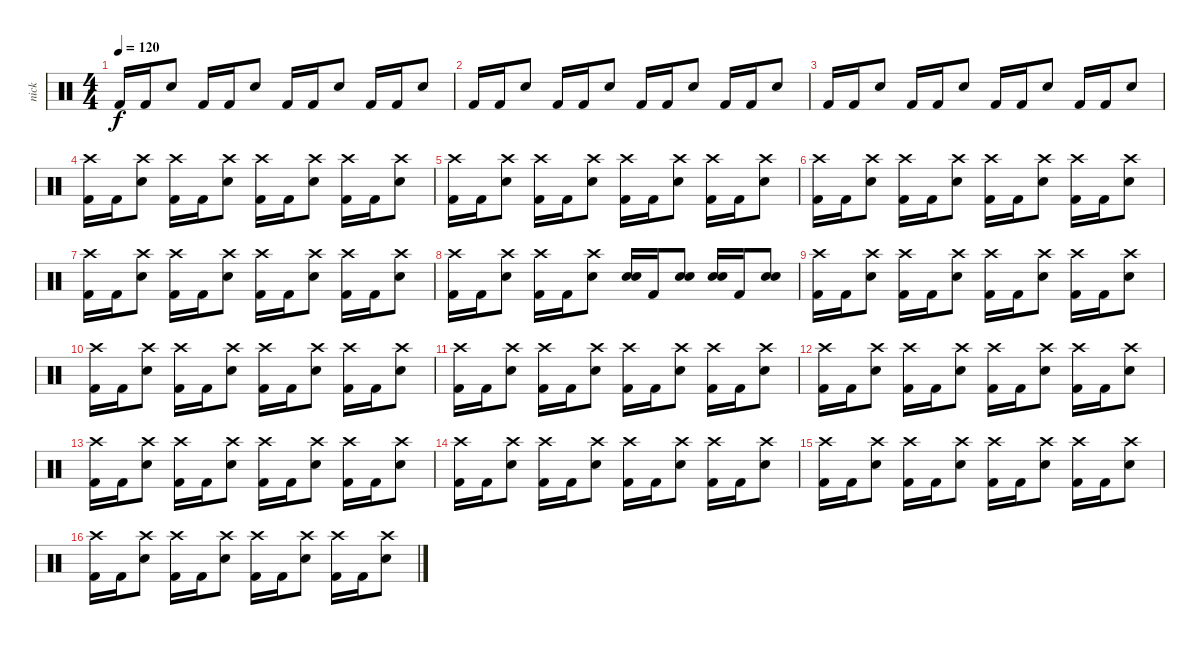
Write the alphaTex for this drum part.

\track ("nick" "nick") {instrument percussion}
\staff {score}
\articulation defaults
\ts (4 4)
\tempo 120
\clef neutral
\ks c "Kick (hit) 2".16{dy f} "Kick (hit) 2".16 "Snare (hit) 2".8 "Kick (hit) 2".16 "Kick (hit) 2".16 "Snare (hit) 2".8 "Kick (hit) 2".16 "Kick (hit) 2".16 "Snare (hit) 2".8 "Kick (hit) 2".16 "Kick (hit) 2".16 "Snare (hit) 2".8
|
"Kick (hit) 2".16 "Kick (hit) 2".16 "Snare (hit) 2".8 "Kick (hit) 2".16 "Kick (hit) 2".16 "Snare (hit) 2".8 "Kick (hit) 2".16 "Kick (hit) 2".16 "Snare (hit) 2".8 "Kick (hit) 2".16 "Kick (hit) 2".16 "Snare (hit) 2".8 |
"Kick (hit) 2".16 "Kick (hit) 2".16 "Snare (hit) 2".8 "Kick (hit) 2".16 "Kick (hit) 2".16 "Snare (hit) 2".8 "Kick (hit) 2".16 "Kick (hit) 2".16 "Snare (hit) 2".8 "Kick (hit) 2".16 "Kick (hit) 2".16 "Snare (hit) 2".8 |
("Kick (hit) 2" "Crash high (hit)").16 "Kick (hit) 2".16 ("Snare (hit) 2" "Crash high (hit)").8 ("Kick (hit) 2" "Crash high (hit)").16 "Kick (hit) 2".16 ("Snare (hit) 2" "Crash high (hit)").8 ("Kick (hit) 2" "Crash high (hit)").16 "Kick (hit) 2".16 ("Snare (hit) 2" "Crash high (hit)").8 ("Kick (hit) 2" "Crash high (hit)").16 "Kick (hit) 2".16 ("Snare (hit) 2" "Crash high (hit)").8 |
("Kick (hit) 2" "Crash high (hit)").16 "Kick (hit) 2".16 ("Snare (hit) 2" "Crash high (hit)").8 ("Kick (hit) 2" "Crash high (hit)").16 "Kick (hit) 2".16 ("Snare (hit) 2" "Crash high (hit)").8 ("Kick (hit) 2" "Crash high (hit)").16 "Kick (hit) 2".16 ("Snare (hit) 2" "Crash high (hit)").8 ("Kick (hit) 2" "Crash high (hit)").16 "Kick (hit) 2".16 ("Snare (hit) 2" "Crash high (hit)").8 |
("Kick (hit) 2" "Crash high (hit)").16 "Kick (hit) 2".16 ("Snare (hit) 2" "Crash high (hit)").8 ("Kick (hit) 2" "Crash high (hit)").16 "Kick (hit) 2".16 ("Snare (hit) 2" "Crash high (hit)").8 ("Kick (hit) 2" "Crash high (hit)").16 "Kick (hit) 2".16 ("Snare (hit) 2" "Crash high (hit)").8 ("Kick (hit) 2" "Crash high (hit)").16 "Kick (hit) 2".16 ("Snare (hit) 2" "Crash high (hit)").8 |
("Kick (hit) 2" "Crash high (hit)").16 "Kick (hit) 2".16 ("Snare (hit) 2" "Crash high (hit)").8 ("Kick (hit) 2" "Crash high (hit)").16 "Kick (hit) 2".16 ("Snare (hit) 2" "Crash high (hit)").8 ("Kick (hit) 2" "Crash high (hit)").16 "Kick (hit) 2".16 ("Snare (hit) 2" "Crash high (hit)").8 ("Kick (hit) 2" "Crash high (hit)").16 "Kick (hit) 2".16 ("Snare (hit) 2" "Crash high (hit)").8 |
("Kick (hit) 2" "Crash high (hit)").16 "Kick (hit) 2".16 ("Snare (hit) 2" "Crash high (hit)").8 ("Kick (hit) 2" "Crash high (hit)").16 "Kick (hit) 2".16 ("Snare (hit) 2" "Crash high (hit)").8 ("Snare (hit) 2" "Snare (hit)").16 "Kick (hit) 2".16 ("Snare (hit) 2" "Snare (hit)").8 ("Snare (hit) 2" "Snare (hit)").16 "Kick (hit) 2".16 ("Snare (hit) 2" "Snare (hit)").8 |
("Kick (hit) 2" "Crash high (hit)").16 "Kick (hit) 2".16 ("Snare (hit) 2" "Crash high (hit)").8 ("Kick (hit) 2" "Crash high (hit)").16 "Kick (hit) 2".16 ("Snare (hit) 2" "Crash high (hit)").8 ("Kick (hit) 2" "Crash high (hit)").16 "Kick (hit) 2".16 ("Snare (hit) 2" "Crash high (hit)").8 ("Kick (hit) 2" "Crash high (hit)").16 "Kick (hit) 2".16 ("Snare (hit) 2" "Crash high (hit)").8 |
("Kick (hit) 2" "Crash high (hit)").16 "Kick (hit) 2".16 ("Snare (hit) 2" "Crash high (hit)").8 ("Kick (hit) 2" "Crash high (hit)").16 "Kick (hit) 2".16 ("Snare (hit) 2" "Crash high (hit)").8 ("Kick (hit) 2" "Crash high (hit)").16 "Kick (hit) 2".16 ("Snare (hit) 2" "Crash high (hit)").8 ("Kick (hit) 2" "Crash high (hit)").16 "Kick (hit) 2".16 ("Snare (hit) 2" "Crash high (hit)").8 |
("Kick (hit) 2" "Crash high (hit)").16 "Kick (hit) 2".16 ("Snare (hit) 2" "Crash high (hit)").8 ("Kick (hit) 2" "Crash high (hit)").16 "Kick (hit) 2".16 ("Snare (hit) 2" "Crash high (hit)").8 ("Kick (hit) 2" "Crash high (hit)").16 "Kick (hit) 2".16 ("Snare (hit) 2" "Crash high (hit)").8 ("Kick (hit) 2" "Crash high (hit)").16 "Kick (hit) 2".16 ("Snare (hit) 2" "Crash high (hit)").8 |
("Kick (hit) 2" "Crash high (hit)").16 "Kick (hit) 2".16 ("Snare (hit) 2" "Crash high (hit)").8 ("Kick (hit) 2" "Crash high (hit)").16 "Kick (hit) 2".16 ("Snare (hit) 2" "Crash high (hit)").8 ("Kick (hit) 2" "Crash high (hit)").16 "Kick (hit) 2".16 ("Snare (hit) 2" "Crash high (hit)").8 ("Kick (hit) 2" "Crash high (hit)").16 "Kick (hit) 2".16 ("Snare (hit) 2" "Crash high (hit)").8 |
("Kick (hit) 2" "Crash high (hit)").16 "Kick (hit) 2".16 ("Snare (hit) 2" "Crash high (hit)").8 ("Kick (hit) 2" "Crash high (hit)").16 "Kick (hit) 2".16 ("Snare (hit) 2" "Crash high (hit)").8 ("Kick (hit) 2" "Crash high (hit)").16 "Kick (hit) 2".16 ("Snare (hit) 2" "Crash high (hit)").8 ("Kick (hit) 2" "Crash high (hit)").16 "Kick (hit) 2".16 ("Snare (hit) 2" "Crash high (hit)").8 |
("Kick (hit) 2" "Crash high (hit)").16 "Kick (hit) 2".16 ("Snare (hit) 2" "Crash high (hit)").8 ("Kick (hit) 2" "Crash high (hit)").16 "Kick (hit) 2".16 ("Snare (hit) 2" "Crash high (hit)").8 ("Kick (hit) 2" "Crash high (hit)").16 "Kick (hit) 2".16 ("Snare (hit) 2" "Crash high (hit)").8 ("Kick (hit) 2" "Crash high (hit)").16 "Kick (hit) 2".16 ("Snare (hit) 2" "Crash high (hit)").8 |
("Kick (hit) 2" "Crash high (hit)").16 "Kick (hit) 2".16 ("Snare (hit) 2" "Crash high (hit)").8 ("Kick (hit) 2" "Crash high (hit)").16 "Kick (hit) 2".16 ("Snare (hit) 2" "Crash high (hit)").8 ("Kick (hit) 2" "Crash high (hit)").16 "Kick (hit) 2".16 ("Snare (hit) 2" "Crash high (hit)").8 ("Kick (hit) 2" "Crash high (hit)").16 "Kick (hit) 2".16 ("Snare (hit) 2" "Crash high (hit)").8 |
("Kick (hit) 2" "Crash high (hit)").16 "Kick (hit) 2".16 ("Snare (hit) 2" "Crash high (hit)").8 ("Kick (hit) 2" "Crash high (hit)").16 "Kick (hit) 2".16 ("Snare (hit) 2" "Crash high (hit)").8 ("Kick (hit) 2" "Crash high (hit)").16 "Kick (hit) 2".16 ("Snare (hit) 2" "Crash high (hit)").8 ("Kick (hit) 2" "Crash high (hit)").16 "Kick (hit) 2".16 ("Snare (hit) 2" "Crash high (hit)").8
